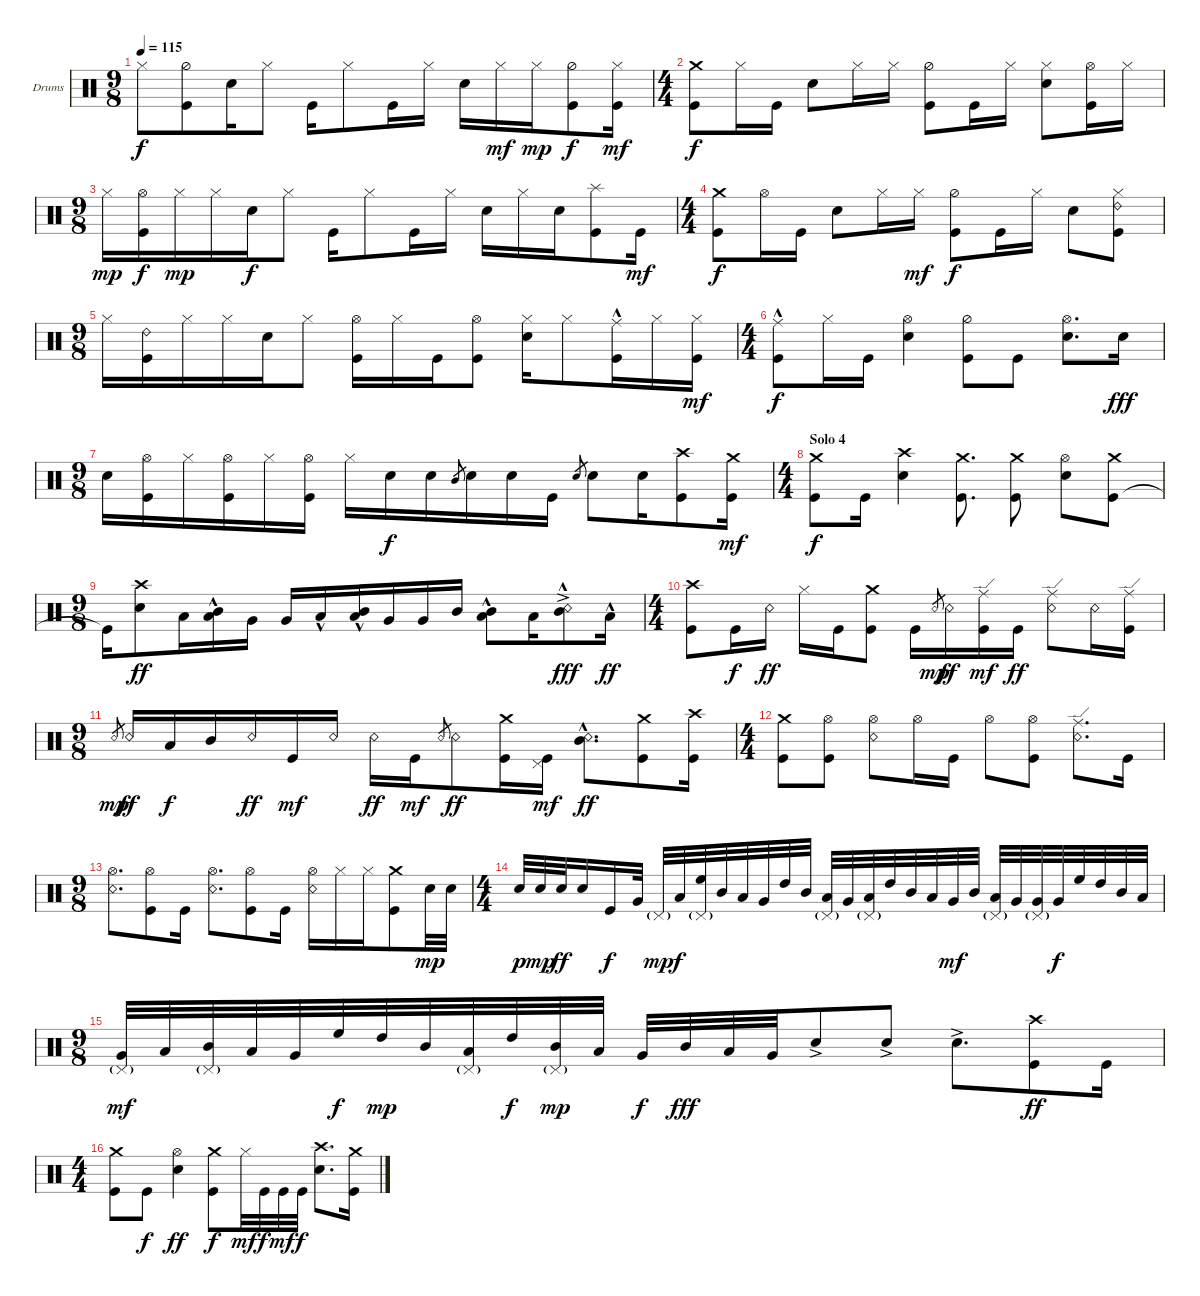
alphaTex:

\defaultSystemsLayout 4
\bracketExtendMode groupsimilarinstruments
\firstSystemTrackNameOrientation horizontal
\otherSystemsTrackNameOrientation horizontal
\track ("Batterie " "Drums") {instrument percussion}
\staff {score}
\articulation defaults
\ts (9 8)
\tempo 115
\clef neutral
\ks c "Hi-Hat (closed)".8{dy f}
("Kick (hit)" "Hi-Hat (half)").8 "Snare (hit) 2".16 "Hi-Hat (closed)".8 "Kick (hit)".16 "Hi-Hat (closed)".8 "Kick (hit)".16 "Hi-Hat (closed)".16 "Snare (hit) 2".16 "Hi-Hat (closed)".16{dy mf} "Hi-Hat (closed)".16{dy mp} ("Kick (hit)" "Hi-Hat (half)").8{dy f} ("Hi-Hat (closed)" "Kick (hit)").16{dy mf} |
\ts (4 4)
("Kick (hit)" "Crash medium (hit)").8{dy f} "Hi-Hat (closed)".16 "Kick (hit)".16 "Snare (hit) 2".8 "Hi-Hat (closed)".16 "Hi-Hat (closed)".16 ("Kick (hit)" "Hi-Hat (half)").8 "Kick (hit)".16 "Hi-Hat (closed)".16 ("Snare (hit) 2" "Hi-Hat (closed)").8 ("Kick (hit)" "Hi-Hat (open)").16 "Hi-Hat (closed)".16 |
\ts (9 8)
"Hi-Hat (closed)".16{dy mp} ("Hi-Hat (open)" "Kick (hit)").16{dy f} "Hi-Hat (closed)".16{dy mp} "Hi-Hat (closed)".16 "Snare (hit) 2".16{dy f} "Hi-Hat (closed)".8 "Kick (hit)".16 "Hi-Hat (closed)".8 "Kick (hit)".16 "Hi-Hat (closed)".16 "Snare (hit) 2".16 "Hi-Hat (closed)".16 "Snare (hit) 2".16 ("Kick (hit)" "Splash (hit)").8 "Kick (hit)".16{dy mf} |
\ts (4 4)
("Kick (hit)" "Crash medium (hit)").8{dy f} "Hi-Hat (open)".16 "Kick (hit)".16 "Snare (hit) 2".8 "Hi-Hat (closed)".16 "Hi-Hat (closed)".16{dy mf} ("Kick (hit)" "Hi-Hat (half)").8{dy f} "Kick (hit)".16 "Hi-Hat (closed)".16 "Snare (hit) 2".8 ("Kick (hit)" "Hi-Hat (closed)" "Ride (bell) 2").8 |
\ts (9 8)
"Hi-Hat (closed)".16 ("Kick (hit)" "Ride (bell) 2").16 "Hi-Hat (closed)".16 "Hi-Hat (closed)".16 "Snare (hit) 2".16 "Hi-Hat (closed)".8 ("Kick (hit)" "Hi-Hat (open)").16 "Hi-Hat (closed)".16 "Kick (hit)".16 ("Kick (hit)" "Hi-Hat (open)").8 ("Snare (hit) 2" "Hi-Hat (closed)").16 "Hi-Hat (closed)".8 ("Kick (hit)" "Ride (middle)"{hac}).16 "Hi-Hat (closed)".16 ("Kick (hit)" "Hi-Hat (closed)").16{dy mf} |
\ts (4 4)
("Kick (hit)" "Ride (middle)"{hac}).8{dy f} "Hi-Hat (closed)".16 "Kick (hit)".16 ("Snare (hit) 2" "Hi-Hat (open)").4 ("Hi-Hat (half)" "Kick (hit)").8 "Kick (hit)".8 ("Snare (hit) 2" "Hi-Hat (open)").8{d} "Snare (hit) 2".16{dy fff} |
\ts (9 8)
"Snare (hit) 2".16 ("Kick (hit)" "Hi-Hat (open)").16 "Hi-Hat (closed)".16 ("Kick (hit)" "Hi-Hat (open)").16 "Hi-Hat (closed)".16 ("Kick (hit)" "Hi-Hat (open)").16 "Hi-Hat (closed)".16 "Snare (hit) 2".16{dy f} "Snare (hit) 2".16 "Mid Tom (hit)".8{gr} "Snare (hit) 2".16 "Snare (hit) 2".16 "Kick (hit)".16 "Snare (hit) 2".8{gr} "Snare (hit) 2".8 "Snare (hit) 2".16 ("Kick (hit)" "Crash high (hit)").8 ("Kick (hit)" "Crash medium (hit)").16{dy mf} |
\ts (4 4)
\section ("" "Solo 4")
("Kick (hit)" "Crash medium (hit)").8{dy f} "Kick (hit)".16 ("Snare (hit) 2" "Crash high (hit)").4 ("Kick (hit)" "Crash medium (hit)").8{d} ("Kick (hit)" "Crash medium (hit)").8 ("Snare (hit) 2" "Hi-Hat (open)").8 ("Kick (hit)" "Crash medium (hit)").8 |
\ts (9 8)
"Kick (hit)"{t}.16 ("Snare (hit) 2" "Crash high (hit)").8{dy ff} "Low Tom (hit)".16 ("Mid Tom (hit)"{hac} "Low Tom (hit)").16 "Very Low Tom (hit)".16 "Very Low Tom (hit)".16 "Low Tom (hit)"{hac}.16 ("Mid Tom (hit)"{hac} "Low Tom (hit)").16 "Very Low Tom (hit)".16 "Very Low Tom (hit)".16 "Mid Tom (hit)".16 ("Low Tom (hit)"{hac} "Mid Tom (hit)"{hac}).8 "Low Tom (hit)".16 ("Snare (rim shot)"{ac} "Mid Tom (hit)"{hac}).8{dy fff} "Low Tom (hit)"{hac}.16{dy ff} |
\ts (4 4)
("Kick (hit)" "Crash high (hit)").8 "Kick (hit)".16{dy f} "Snare (rim shot)".16{dy ff} "Hi-Hat (closed)".16 "Kick (hit)".16 ("Kick (hit)" "Crash medium (hit)").8 "Kick (hit)".16 "Snare (rim shot)".8{gr dy mp} "Snare (rim shot)".16{dy ff} ("Kick (hit)" "Ride (edge)").16{dy mf} "Kick (hit)".16{dy ff} ("Snare (rim shot)" "Ride (edge)").8 "Snare (rim shot)".16 ("Kick (hit)" "Ride (edge)").16 |
\ts (9 8)
"Snare (rim shot)".8{gr dy mp} "Snare (rim shot)".16{dy ff} "Low Tom (hit)".16{dy f} "Mid Tom (hit)".16 "Snare (rim shot)".16{dy ff} "Kick (hit)".16{dy mf} "Snare (rim shot)".16 "Snare (rim shot)".16{dy ff} "Kick (hit)".16{dy mf} "Snare (rim shot)".8{gr} "Snare (rim shot)".8{dy ff} ("Kick (hit)" "Crash medium (hit)").16 ("Pedal Hi-Hat (hit)" "Kick (hit)").16{dy mf} ("Snare (rim shot)"{hac} "Mid Tom (hit)").8{d dy ff} ("Kick (hit)" "Crash medium (hit)").8 ("Kick (hit)" "Crash high (hit)").16 |
\ts (4 4)
("Kick (hit)" "Crash medium (hit)").8 ("Kick (hit)" "Hi-Hat (open)").8 ("Snare (rim shot)" "Hi-Hat (open)").8 "Hi-Hat (open)".16 "Kick (hit)".16 "Hi-Hat (open)".8 ("Kick (hit)" "Hi-Hat (open)").8 ("Snare (rim shot)" "Ride (edge)").8{d} "Kick (hit)".16 |
\ts (9 8)
("Snare (rim shot)" "Hi-Hat (open)").8{d} ("Kick (hit)" "Hi-Hat (open)").8 "Kick (hit)".16 ("Snare (rim shot)" "Hi-Hat (open)").8{d} ("Kick (hit)" "Hi-Hat (open)").8 "Kick (hit)".16 ("Snare (rim shot)" "Hi-Hat (open)").16 "Hi-Hat (closed)".16 "Hi-Hat (closed)".16 ("Kick (hit)" "Crash medium (hit)").8 "Snare (hit) 2".32{dy mp} "Snare (hit) 2".32 |
\ts (4 4)
"Snare (hit) 2".32{dy p} "Snare (hit) 2".32{dy mp} "Snare (hit) 2".32{dy ff} "Snare (hit) 2".16 "Kick (hit)".16{dy f} "Very Low Tom (hit)".32 "Pedal Hi-Hat (hit)"{g}.32{dy mp} "Low Tom (hit)".32{dy f} ("High Floor Tom (hit)" "Pedal Hi-Hat (hit)"{g}).32 "Mid Tom (hit)".32 "Low Tom (hit)".32 "Very Low Tom (hit)".32 "High Tom (hit)".32 "Mid Tom (hit)".32 ("Low Tom (hit)" "Pedal Hi-Hat (hit)"{g}).32 "Very Low Tom (hit)".32 ("Low Tom (hit)" "Pedal Hi-Hat (hit)"{g}).32 "High Tom (hit)".32 "Mid Tom (hit)".32 "Low Tom (hit)".32 "Very Low Tom (hit)".32{dy mf} "Mid Tom (hit)".32 ("Low Tom (hit)" "Pedal Hi-Hat (hit)"{g}).32 "Very Low Tom (hit)".32 ("Very Low Tom (hit)" "Pedal Hi-Hat (hit)"{g}).32 "Very Low Tom (hit)".32{dy f} "High Floor Tom (hit)".32 "High Tom (hit)".32 "Mid Tom (hit)".32 "Low Tom (hit)".32 |
\ts (9 8)
("Very Low Tom (hit)" "Pedal Hi-Hat (hit)"{g}).32{dy mf} "Low Tom (hit)".32 ("Mid Tom (hit)" "Pedal Hi-Hat (hit)"{g}).32 "Low Tom (hit)".32 "Very Low Tom (hit)".32 "High Floor Tom (hit)".32{dy f} "High Tom (hit)".32{dy mp} "Mid Tom (hit)".32 ("Low Tom (hit)" "Pedal Hi-Hat (hit)"{g}).32 "High Tom (hit)".32{dy f} ("Mid Tom (hit)" "Pedal Hi-Hat (hit)"{g}).32{dy mp} "Low Tom (hit)".32 "Very Low Tom (hit)".32{dy f} "Mid Tom (hit)".32{dy fff} "Low Tom (hit)".32 "Very Low Tom (hit)".32 "Snare (hit) 2"{ac}.8 "Snare (hit) 2"{ac}.8 "Snare (hit) 2"{ac}.8{d} ("Kick (hit)" "Crash high (hit)").8{dy ff} "Kick (hit)".16 |
\ts (4 4)
("Kick (hit)" "Crash medium (hit)").8 "Kick (hit)".8{dy f} ("Snare (hit) 2" "Hi-Hat (open)").4{dy ff} ("Kick (hit)" "Crash medium (hit)").8{dy f} "Hi-Hat (closed)".32{dy mf} "Kick (hit)".32{dy f} "Kick (hit)".32{dy mf} "Kick (hit)".32{dy f} ("Snare (hit) 2" "Crash high (hit)").8{d} ("Crash medium (hit)" "Kick (hit)").16
